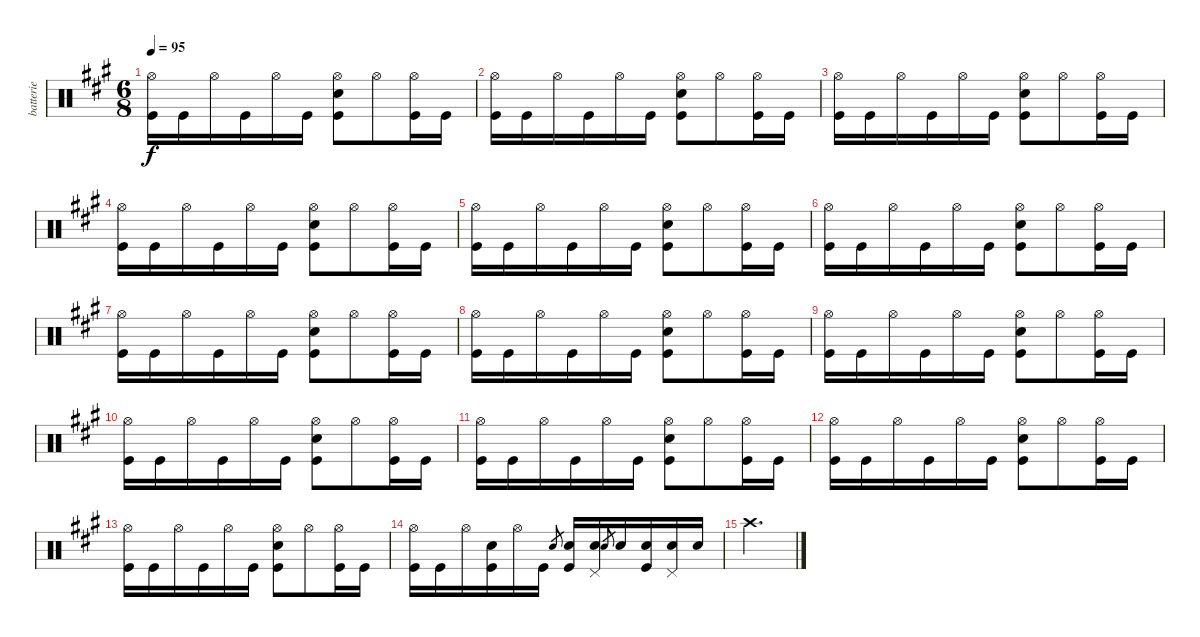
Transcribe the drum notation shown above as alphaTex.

\track ("batterie" "batterie") {instrument percussion}
\staff {score}
\articulation defaults
\ts (6 8)
\tempo 95
\clef neutral
\ks a
("Hi-Hat (open)" "Kick (hit)").16{dy f} "Kick (hit)".16 "Hi-Hat (open)".16 "Kick (hit)".16 "Hi-Hat (open)".16 "Kick (hit)".16 ("Hi-Hat (open)" "Electric Snare (hit)" "Kick (hit)").8 "Hi-Hat (open)".8 ("Hi-Hat (open)" "Kick (hit)").16 "Kick (hit)".16 |
("Hi-Hat (open)" "Kick (hit)").16 "Kick (hit)".16 "Hi-Hat (open)".16 "Kick (hit)".16 "Hi-Hat (open)".16 "Kick (hit)".16 ("Hi-Hat (open)" "Electric Snare (hit)" "Kick (hit)").8 "Hi-Hat (open)".8 ("Hi-Hat (open)" "Kick (hit)").16 "Kick (hit)".16 |
("Hi-Hat (open)" "Kick (hit)").16 "Kick (hit)".16 "Hi-Hat (open)".16 "Kick (hit)".16 "Hi-Hat (open)".16 "Kick (hit)".16 ("Hi-Hat (open)" "Electric Snare (hit)" "Kick (hit)").8 "Hi-Hat (open)".8 ("Hi-Hat (open)" "Kick (hit)").16 "Kick (hit)".16 |
("Hi-Hat (open)" "Kick (hit)").16 "Kick (hit)".16 "Hi-Hat (open)".16 "Kick (hit)".16 "Hi-Hat (open)".16 "Kick (hit)".16 ("Hi-Hat (open)" "Electric Snare (hit)" "Kick (hit)").8 "Hi-Hat (open)".8 ("Hi-Hat (open)" "Kick (hit)").16 "Kick (hit)".16 |
("Hi-Hat (open)" "Kick (hit)").16 "Kick (hit)".16 "Hi-Hat (open)".16 "Kick (hit)".16 "Hi-Hat (open)".16 "Kick (hit)".16 ("Hi-Hat (open)" "Electric Snare (hit)" "Kick (hit)").8 "Hi-Hat (open)".8 ("Hi-Hat (open)" "Kick (hit)").16 "Kick (hit)".16 |
("Hi-Hat (open)" "Kick (hit)").16 "Kick (hit)".16 "Hi-Hat (open)".16 "Kick (hit)".16 "Hi-Hat (open)".16 "Kick (hit)".16 ("Hi-Hat (open)" "Electric Snare (hit)" "Kick (hit)").8 "Hi-Hat (open)".8 ("Hi-Hat (open)" "Kick (hit)").16 "Kick (hit)".16 |
("Hi-Hat (open)" "Kick (hit)").16 "Kick (hit)".16 "Hi-Hat (open)".16 "Kick (hit)".16 "Hi-Hat (open)".16 "Kick (hit)".16 ("Hi-Hat (open)" "Electric Snare (hit)" "Kick (hit)").8 "Hi-Hat (open)".8 ("Hi-Hat (open)" "Kick (hit)").16 "Kick (hit)".16 |
("Hi-Hat (open)" "Kick (hit)").16 "Kick (hit)".16 "Hi-Hat (open)".16 "Kick (hit)".16 "Hi-Hat (open)".16 "Kick (hit)".16 ("Hi-Hat (open)" "Electric Snare (hit)" "Kick (hit)").8 "Hi-Hat (open)".8 ("Hi-Hat (open)" "Kick (hit)").16 "Kick (hit)".16 |
("Hi-Hat (open)" "Kick (hit)").16 "Kick (hit)".16 "Hi-Hat (open)".16 "Kick (hit)".16 "Hi-Hat (open)".16 "Kick (hit)".16 ("Hi-Hat (open)" "Electric Snare (hit)" "Kick (hit)").8 "Hi-Hat (open)".8 ("Hi-Hat (open)" "Kick (hit)").16 "Kick (hit)".16 |
("Hi-Hat (open)" "Kick (hit)").16 "Kick (hit)".16 "Hi-Hat (open)".16 "Kick (hit)".16 "Hi-Hat (open)".16 "Kick (hit)".16 ("Hi-Hat (open)" "Electric Snare (hit)" "Kick (hit)").8 "Hi-Hat (open)".8 ("Hi-Hat (open)" "Kick (hit)").16 "Kick (hit)".16 |
("Hi-Hat (open)" "Kick (hit)").16 "Kick (hit)".16 "Hi-Hat (open)".16 "Kick (hit)".16 "Hi-Hat (open)".16 "Kick (hit)".16 ("Hi-Hat (open)" "Electric Snare (hit)" "Kick (hit)").8 "Hi-Hat (open)".8 ("Hi-Hat (open)" "Kick (hit)").16 "Kick (hit)".16 |
("Hi-Hat (open)" "Kick (hit)").16 "Kick (hit)".16 "Hi-Hat (open)".16 "Kick (hit)".16 "Hi-Hat (open)".16 "Kick (hit)".16 ("Hi-Hat (open)" "Electric Snare (hit)" "Kick (hit)").8 "Hi-Hat (open)".8 ("Hi-Hat (open)" "Kick (hit)").16 "Kick (hit)".16 |
("Hi-Hat (open)" "Kick (hit)").16 "Kick (hit)".16 "Hi-Hat (open)".16 "Kick (hit)".16 "Hi-Hat (open)".16 "Kick (hit)".16 ("Hi-Hat (open)" "Electric Snare (hit)" "Kick (hit)").8 "Hi-Hat (open)".8 ("Hi-Hat (open)" "Kick (hit)").16 "Kick (hit)".16 |
("Hi-Hat (open)" "Kick (hit)").16 "Kick (hit)".16 "Hi-Hat (open)".16 ("Electric Snare (hit)" "Kick (hit)").16 "Hi-Hat (open)".16 "Kick (hit)".16 "Electric Snare (hit)".8{gr} ("Electric Snare (hit)" "Kick (hit)").16 ("Pedal Hi-Hat (hit)" "Electric Snare (hit)").16 "Electric Snare (hit)".8{gr} "Electric Snare (hit)".16 ("Electric Snare (hit)" "Kick (hit)").16 ("Pedal Hi-Hat (hit)" "Electric Snare (hit)").16 "Electric Snare (hit)".16 |
"Crash high (hit)".2{d}
